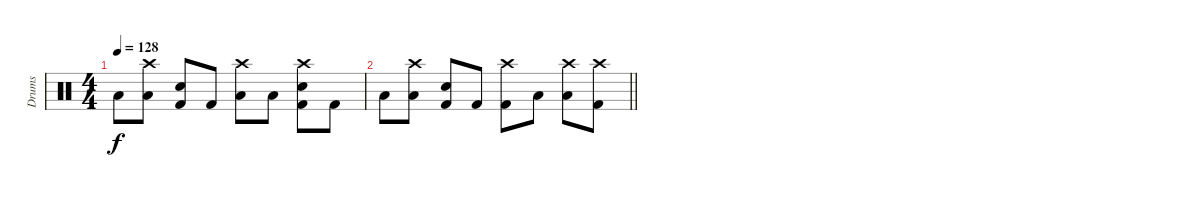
\track ("Drums" "Drums") {instrument percussion}
\staff {score}
\articulation defaults
\ts (4 4)
\tempo 128
\clef neutral
\ks c "Low Tom (hit)".8{dy f}
("Crash high (hit)" "Low Tom (hit)").8 ("Kick (hit) 2" "Snare (hit) 2").8 "Kick (hit) 2".8 ("Crash high (hit)" "Low Tom (hit)").8 "Low Tom (hit)".8 ("Kick (hit) 2" "Snare (hit) 2" "Crash high (hit)").8 "Kick (hit) 2".8 |
\barLineRight lightlight "Low Tom (hit)".8
("Crash high (hit)" "Low Tom (hit)").8 ("Kick (hit) 2" "Snare (hit) 2").8 "Kick (hit) 2".8 ("Kick (hit) 2" "Crash high (hit)").8 "Low Tom (hit)".8 ("Crash high (hit)" "Low Tom (hit)").8 ("Kick (hit) 2" "Crash high (hit)").8
